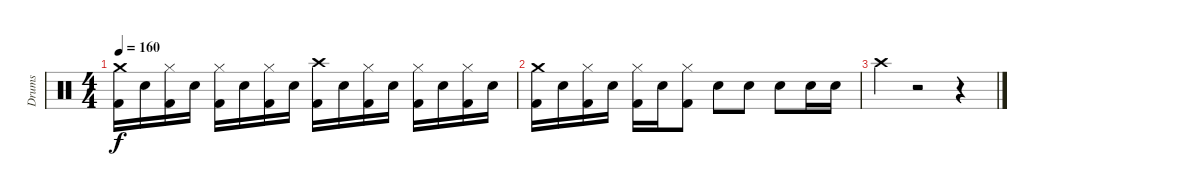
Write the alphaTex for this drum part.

\track ("Drums" "Drums") {instrument percussion}
\staff {score}
\articulation defaults
\ts (4 4)
\tempo 160
\clef neutral
\ks c
("Crash medium (hit)" "Kick (hit) 2").16{dy f} "Electric Snare (hit)".16 ("Hi-Hat (closed)" "Kick (hit) 2").16 "Electric Snare (hit)".16 ("Hi-Hat (closed)" "Kick (hit) 2").16 "Electric Snare (hit)".16 ("Hi-Hat (closed)" "Kick (hit) 2").16 "Electric Snare (hit)".16 ("Crash high (hit)" "Kick (hit) 2").16 "Electric Snare (hit)".16 ("Hi-Hat (closed)" "Kick (hit) 2").16 "Electric Snare (hit)".16 ("Hi-Hat (closed)" "Kick (hit) 2").16 "Electric Snare (hit)".16 ("Hi-Hat (closed)" "Kick (hit) 2").16 "Electric Snare (hit)".16 |
("Crash medium (hit)" "Kick (hit) 2").16 "Electric Snare (hit)".16 ("Hi-Hat (closed)" "Kick (hit) 2").16 "Electric Snare (hit)".16 ("Hi-Hat (closed)" "Kick (hit) 2").16 "Electric Snare (hit)".16 ("Hi-Hat (closed)" "Kick (hit) 2").8 "Electric Snare (hit)".8 "Electric Snare (hit)".8 "Electric Snare (hit)".8 "Electric Snare (hit)".16 "Electric Snare (hit)".16 |
"Crash high (hit)".4 r.2 r.4
